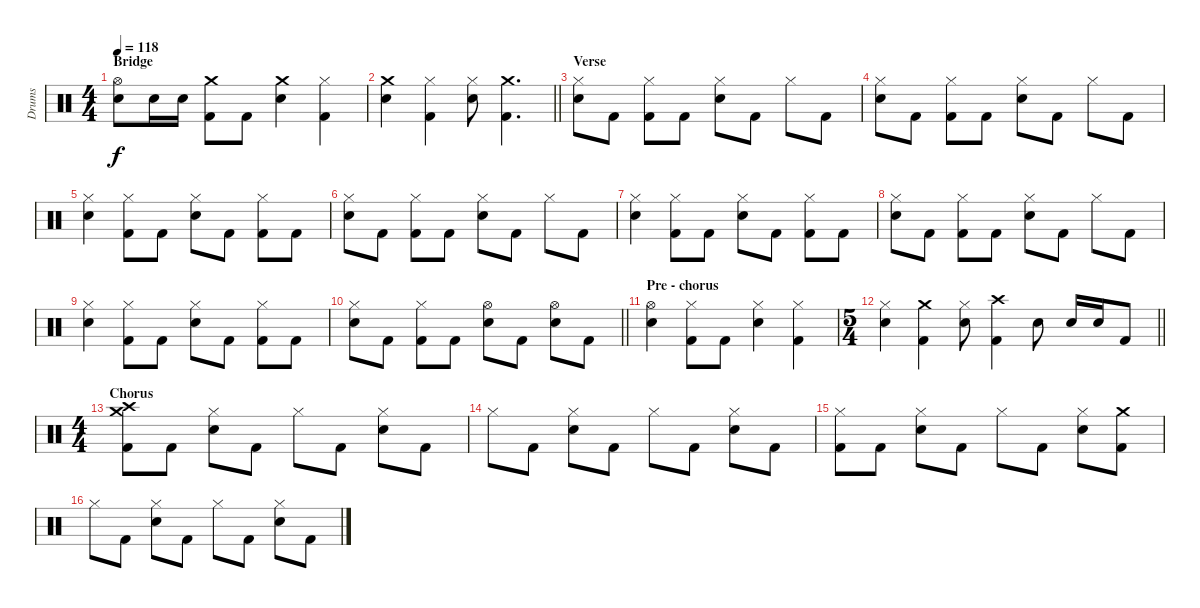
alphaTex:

\track ("Drums" "Drums") {instrument percussion}
\staff {score}
\articulation defaults
\ts (4 4)
\section ("" "Bridge")
\tempo 118
\clef neutral
\ks c
("Hi-Hat (open)" "Snare (hit) 2").8{dy f} "Snare (hit) 2".16 "Snare (hit) 2".16 ("Crash medium (hit)" "Kick (hit) 2").8 "Kick (hit) 2".8 ("Crash medium (hit)" "Snare (hit) 2").4 ("Hi-Hat (closed)" "Kick (hit) 2").4 |
\barLineRight lightlight
("Crash medium (hit)" "Snare (hit) 2").4 ("Hi-Hat (closed)" "Kick (hit) 2").4 ("Hi-Hat (closed)" "Snare (hit) 2").8 ("Crash medium (hit)" "Kick (hit) 2").4{d} |
\section ("" "Verse")
("Hi-Hat (closed)" "Snare (hit) 2").8 "Kick (hit) 2".8 ("Hi-Hat (closed)" "Kick (hit) 2").8 "Kick (hit) 2".8 ("Hi-Hat (closed)" "Snare (hit) 2").8 "Kick (hit) 2".8 "Hi-Hat (closed)".8 "Kick (hit) 2".8 |
("Hi-Hat (closed)" "Snare (hit) 2").8 "Kick (hit) 2".8 ("Hi-Hat (closed)" "Kick (hit) 2").8 "Kick (hit) 2".8 ("Hi-Hat (closed)" "Snare (hit) 2").8 "Kick (hit) 2".8 "Hi-Hat (closed)".8 "Kick (hit) 2".8 |
("Hi-Hat (closed)" "Snare (hit) 2").4 ("Hi-Hat (closed)" "Kick (hit) 2").8 "Kick (hit) 2".8 ("Hi-Hat (closed)" "Snare (hit) 2").8 "Kick (hit) 2".8 ("Hi-Hat (closed)" "Kick (hit) 2").8 "Kick (hit) 2".8 |
("Hi-Hat (closed)" "Snare (hit) 2").8 "Kick (hit) 2".8 ("Hi-Hat (closed)" "Kick (hit) 2").8 "Kick (hit) 2".8 ("Hi-Hat (closed)" "Snare (hit) 2").8 "Kick (hit) 2".8 "Hi-Hat (closed)".8 "Kick (hit) 2".8 |
("Hi-Hat (closed)" "Snare (hit) 2").4 ("Hi-Hat (closed)" "Kick (hit) 2").8 "Kick (hit) 2".8 ("Hi-Hat (closed)" "Snare (hit) 2").8 "Kick (hit) 2".8 ("Hi-Hat (closed)" "Kick (hit) 2").8 "Kick (hit) 2".8 |
("Hi-Hat (closed)" "Snare (hit) 2").8 "Kick (hit) 2".8 ("Hi-Hat (closed)" "Kick (hit) 2").8 "Kick (hit) 2".8 ("Hi-Hat (closed)" "Snare (hit) 2").8 "Kick (hit) 2".8 "Hi-Hat (closed)".8 "Kick (hit) 2".8 |
("Hi-Hat (closed)" "Snare (hit) 2").4 ("Hi-Hat (closed)" "Kick (hit) 2").8 "Kick (hit) 2".8 ("Hi-Hat (closed)" "Snare (hit) 2").8 "Kick (hit) 2".8 ("Hi-Hat (closed)" "Kick (hit) 2").8 "Kick (hit) 2".8 |
\barLineRight lightlight
("Hi-Hat (closed)" "Snare (hit) 2").8 "Kick (hit) 2".8 ("Hi-Hat (closed)" "Kick (hit) 2").8 "Kick (hit) 2".8 ("Hi-Hat (open)" "Snare (hit) 2").8 "Kick (hit) 2".8 ("Hi-Hat (open)" "Snare (hit) 2").8 "Kick (hit) 2".8 |
\section ("" "Pre - chorus")
("Hi-Hat (open)" "Snare (hit) 2").4 ("Hi-Hat (closed)" "Kick (hit) 2").8 "Kick (hit) 2".8 ("Hi-Hat (closed)" "Snare (hit) 2").4 ("Hi-Hat (closed)" "Kick (hit) 2").4 |
\ts (5 4)
\barLineRight lightlight
("Hi-Hat (closed)" "Snare (hit) 2").4 ("Crash medium (hit)" "Kick (hit) 2").4 ("Hi-Hat (closed)" "Snare (hit) 2").8 ("Crash high (hit)" "Kick (hit) 2").4 "Snare (hit) 2".8 "Snare (hit) 2".16 "Snare (hit) 2".16 "Kick (hit) 2".8 |
\ts (4 4)
\section ("" "Chorus")
("Crash medium (hit)" "Crash high (hit)" "Kick (hit) 2").8 "Kick (hit) 2".8 ("Hi-Hat (closed)" "Snare (hit) 2").8 "Kick (hit) 2".8 "Hi-Hat (closed)".8 "Kick (hit) 2".8 ("Hi-Hat (closed)" "Snare (hit) 2").8 "Kick (hit) 2".8 |
"Hi-Hat (closed)".8 "Kick (hit) 2".8 ("Hi-Hat (closed)" "Snare (hit) 2").8 "Kick (hit) 2".8 "Hi-Hat (closed)".8 "Kick (hit) 2".8 ("Hi-Hat (closed)" "Snare (hit) 2").8 "Kick (hit) 2".8 |
("Hi-Hat (closed)" "Kick (hit) 2").8 "Kick (hit) 2".8 ("Hi-Hat (closed)" "Snare (hit) 2").8 "Kick (hit) 2".8 "Hi-Hat (closed)".8 "Kick (hit) 2".8 ("Hi-Hat (closed)" "Snare (hit) 2").8 ("Crash medium (hit)" "Kick (hit) 2").8 |
"Hi-Hat (closed)".8 "Kick (hit) 2".8 ("Hi-Hat (closed)" "Snare (hit) 2").8 "Kick (hit) 2".8 "Hi-Hat (closed)".8 "Kick (hit) 2".8 ("Hi-Hat (closed)" "Snare (hit) 2").8 "Kick (hit) 2".8
